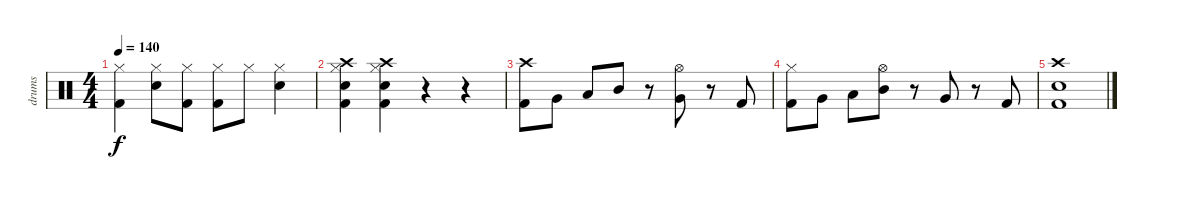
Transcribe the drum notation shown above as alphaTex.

\track ("drums" "drums") {instrument percussion}
\staff {score}
\articulation defaults
\ts (4 4)
\tempo 140
\clef neutral
\ks c
("Hi-Hat (closed)" "Kick (hit) 2").4{dy f} ("Hi-Hat (closed)" "Snare (hit) 2").8 ("Hi-Hat (closed)" "Kick (hit) 2").8 ("Hi-Hat (closed)" "Kick (hit) 2").8 "Hi-Hat (closed)".8 ("Hi-Hat (closed)" "Snare (hit) 2").4 |
("Crash high (hit)" "Hi-Hat (closed)" "Snare (hit) 2" "Kick (hit) 2").4 ("Crash high (hit)" "Hi-Hat (closed)" "Snare (hit) 2" "Kick (hit) 2").4 r.4 r.4 |
("Crash high (hit)" "Kick (hit) 2").8 "Very Low Tom (hit)".8 "Low Tom (hit)".8 "Mid Tom (hit)".8 r.8 ("Hi-Hat (open)" "Very Low Tom (hit)").8 r.8 "Kick (hit) 2".8 |
("Hi-Hat (closed)" "Kick (hit) 2").8 "Very Low Tom (hit)".8 "Low Tom (hit)".8 ("Hi-Hat (open)" "Mid Tom (hit)").8 r.8 "Very Low Tom (hit)".8 r.8 "Kick (hit) 2".8 |
("Crash high (hit)" "Snare (hit) 2" "Kick (hit) 2").1
